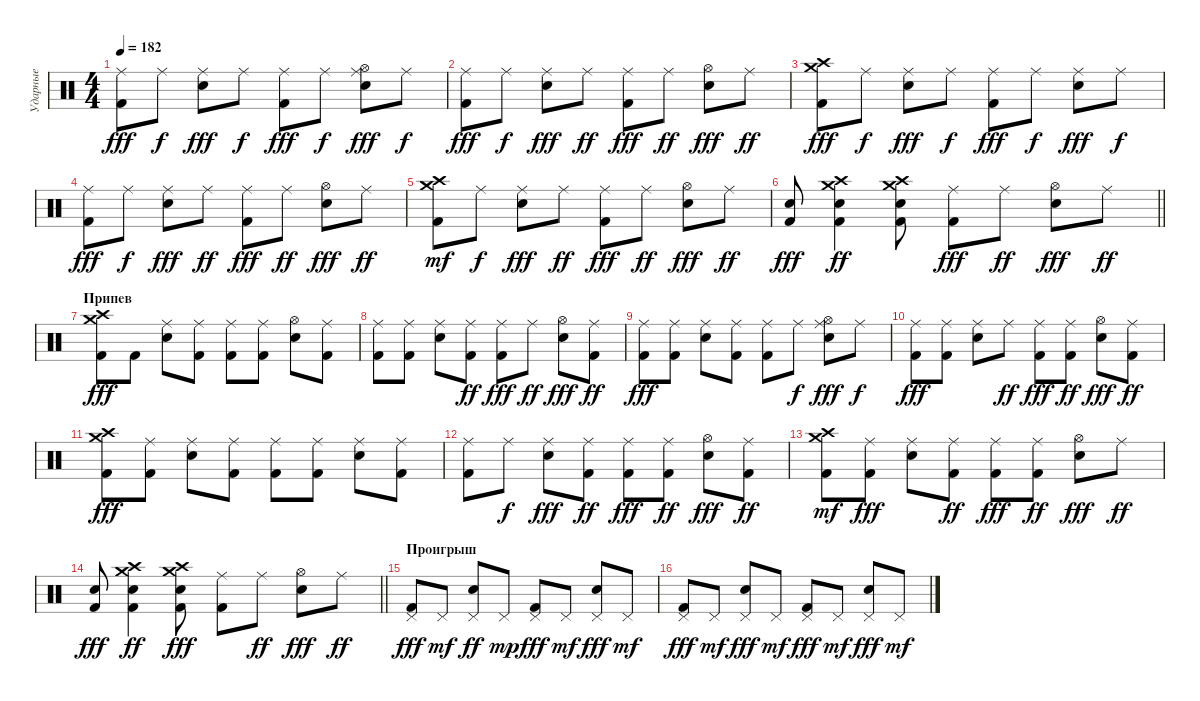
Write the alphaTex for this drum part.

\track ("Ударные" "Ударные") {instrument percussion}
\staff {score}
\articulation defaults
\ts (4 4)
\tempo 182
\clef neutral
\ks c
("Ride (middle)" "Kick (hit) 2").8{dy fff} "Ride (middle)".8{dy f} ("Ride (middle)" "Electric Snare (hit)").8{dy fff} "Ride (middle)".8{dy f} ("Ride (middle)" "Kick (hit) 2").8{dy fff} "Ride (middle)".8{dy f} ("Hi-Hat (open)" "Ride (middle)" "Electric Snare (hit)").8{dy fff} "Ride (middle)".8{dy f} |
("Ride (middle)" "Kick (hit) 2").8{dy fff} "Ride (middle)".8{dy f} ("Ride (middle)" "Electric Snare (hit)").8{dy fff} "Ride (middle)".8{dy ff} ("Ride (middle)" "Kick (hit) 2").8{dy fff} "Ride (middle)".8{dy ff} ("Hi-Hat (open)" "Electric Snare (hit)").8{dy fff} "Ride (middle)".8{dy ff} |
("Crash medium (hit)" "Crash high (hit)" "Kick (hit) 2").8{dy fff} "Ride (middle)".8{dy f} ("Ride (middle)" "Electric Snare (hit)").8{dy fff} "Ride (middle)".8{dy f} ("Ride (middle)" "Kick (hit) 2").8{dy fff} "Ride (middle)".8{dy f} ("Ride (middle)" "Electric Snare (hit)").8{dy fff} "Ride (middle)".8{dy f} |
("Ride (middle)" "Kick (hit) 2").8{dy fff} "Ride (middle)".8{dy f} ("Ride (middle)" "Electric Snare (hit)").8{dy fff} "Ride (middle)".8{dy ff} ("Ride (middle)" "Kick (hit) 2").8{dy fff} "Ride (middle)".8{dy ff} ("Hi-Hat (open)" "Electric Snare (hit)").8{dy fff} "Ride (middle)".8{dy ff} |
("Crash high (hit)" "Kick (hit) 2" "Crash medium (hit)").8{dy mf} "Ride (middle)".8{dy f} ("Ride (middle)" "Electric Snare (hit)").8{dy fff} "Ride (middle)".8{dy ff} ("Ride (middle)" "Kick (hit) 2").8{dy fff} "Ride (middle)".8{dy ff} ("Hi-Hat (open)" "Electric Snare (hit)").8{dy fff} "Ride (middle)".8{dy ff} |
\barLineRight lightlight
("Kick (hit) 2" "Electric Snare (hit)").8{dy fff} ("Electric Snare (hit)" "Kick (hit) 2" "Crash medium (hit)" "Crash high (hit)").4{dy ff} ("Kick (hit) 2" "Electric Snare (hit)" "Crash high (hit)" "Crash medium (hit)").8 ("Ride (middle)" "Kick (hit) 2").8{dy fff} "Ride (middle)".8{dy ff} ("Hi-Hat (open)" "Electric Snare (hit)").8{dy fff} "Ride (middle)".8{dy ff} |
\section ("" "Припев")
("Crash medium (hit)" "Crash high (hit)" "Kick (hit) 2").8{dy fff} "Kick (hit) 2".8 ("Ride (middle)" "Electric Snare (hit)").8 ("Kick (hit) 2" "Ride (middle)").8 ("Ride (middle)" "Kick (hit) 2").8 ("Kick (hit) 2" "Ride (middle)").8 ("Hi-Hat (open)" "Electric Snare (hit)").8 ("Kick (hit) 2" "Ride (middle)").8 |
("Ride (middle)" "Kick (hit) 2").8 ("Kick (hit) 2" "Ride (middle)").8 ("Ride (middle)" "Electric Snare (hit)").8 ("Kick (hit) 2" "Ride (middle)").8{dy ff} ("Ride (middle)" "Kick (hit) 2").8{dy fff} "Ride (middle)".8{dy ff} ("Hi-Hat (open)" "Electric Snare (hit)").8{dy fff} ("Kick (hit) 2" "Ride (middle)").8{dy ff} |
("Ride (middle)" "Kick (hit) 2").8{dy fff} ("Kick (hit) 2" "Ride (middle)").8 ("Ride (middle)" "Electric Snare (hit)").8 ("Kick (hit) 2" "Ride (middle)").8 ("Ride (middle)" "Kick (hit) 2").8 "Ride (middle)".8{dy f} ("Hi-Hat (open)" "Ride (middle)" "Electric Snare (hit)").8{dy fff} "Ride (middle)".8{dy f} |
("Ride (middle)" "Kick (hit) 2").8{dy fff} ("Kick (hit) 2" "Ride (middle)").8 ("Ride (middle)" "Electric Snare (hit)").8 "Ride (middle)".8{dy ff} ("Ride (middle)" "Kick (hit) 2").8{dy fff} ("Kick (hit) 2" "Ride (middle)").8{dy ff} ("Hi-Hat (open)" "Electric Snare (hit)").8{dy fff} ("Kick (hit) 2" "Ride (middle)").8{dy ff} |
("Crash medium (hit)" "Crash high (hit)" "Kick (hit) 2").8{dy fff} ("Kick (hit) 2" "Ride (middle)").8 ("Ride (middle)" "Electric Snare (hit)").8 ("Ride (middle)" "Kick (hit) 2").8 ("Ride (middle)" "Kick (hit) 2").8 ("Kick (hit) 2" "Ride (middle)").8 ("Ride (middle)" "Electric Snare (hit)").8 ("Kick (hit) 2" "Ride (middle)").8 |
("Ride (middle)" "Kick (hit) 2").8 "Ride (middle)".8{dy f} ("Ride (middle)" "Electric Snare (hit)").8{dy fff} ("Kick (hit) 2" "Ride (middle)").8{dy ff} ("Ride (middle)" "Kick (hit) 2").8{dy fff} ("Kick (hit) 2" "Ride (middle)").8{dy ff} ("Hi-Hat (open)" "Electric Snare (hit)").8{dy fff} ("Kick (hit) 2" "Ride (middle)").8{dy ff} |
("Crash high (hit)" "Kick (hit) 2" "Crash medium (hit)").8{dy mf} ("Kick (hit) 2" "Ride (middle)").8{dy fff} ("Ride (middle)" "Electric Snare (hit)").8 ("Kick (hit) 2" "Ride (middle)").8{dy ff} ("Ride (middle)" "Kick (hit) 2").8{dy fff} ("Kick (hit) 2" "Ride (middle)").8{dy ff} ("Hi-Hat (open)" "Electric Snare (hit)").8{dy fff} "Ride (middle)".8{dy ff} |
\barLineRight lightlight
("Kick (hit) 2" "Electric Snare (hit)").8{dy fff} ("Electric Snare (hit)" "Kick (hit) 2" "Crash medium (hit)" "Crash high (hit)").4{dy ff} ("Crash high (hit)" "Crash medium (hit)" "Electric Snare (hit)" "Kick (hit) 2").8{dy fff} ("Ride (middle)" "Kick (hit) 2").8 "Ride (middle)".8{dy ff} ("Hi-Hat (open)" "Electric Snare (hit)").8{dy fff} "Ride (middle)".8{dy ff} |
\section ("" "Проигрыш")
("Pedal Hi-Hat (hit)" "Kick (hit) 2").8{dy fff} "Pedal Hi-Hat (hit)".8{dy mf} ("Electric Snare (hit)" "Pedal Hi-Hat (hit)").8{dy ff} "Pedal Hi-Hat (hit)".8{dy mp} ("Pedal Hi-Hat (hit)" "Kick (hit) 2").8{dy fff} "Pedal Hi-Hat (hit)".8{dy mf} ("Pedal Hi-Hat (hit)" "Electric Snare (hit)").8{dy fff} "Pedal Hi-Hat (hit)".8{dy mf} |
("Pedal Hi-Hat (hit)" "Kick (hit) 2").8{dy fff} "Pedal Hi-Hat (hit)".8{dy mf} ("Pedal Hi-Hat (hit)" "Electric Snare (hit)").8{dy fff} "Pedal Hi-Hat (hit)".8{dy mf} ("Pedal Hi-Hat (hit)" "Kick (hit) 2").8{dy fff} "Pedal Hi-Hat (hit)".8{dy mf} ("Pedal Hi-Hat (hit)" "Electric Snare (hit)").8{dy fff} "Pedal Hi-Hat (hit)".8{dy mf}
